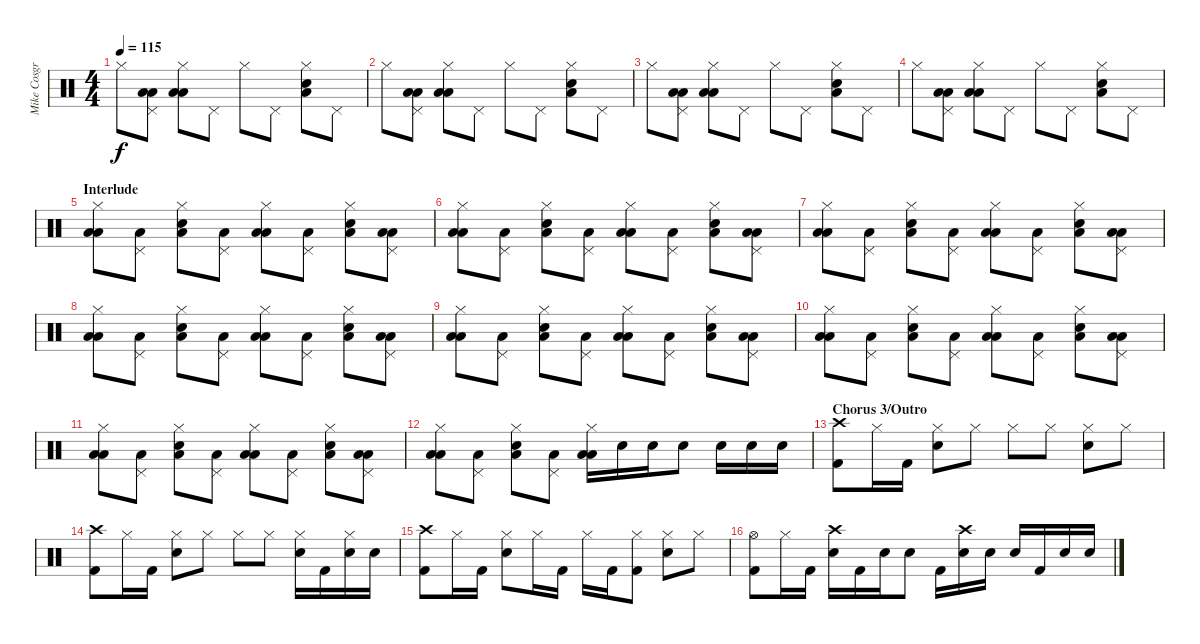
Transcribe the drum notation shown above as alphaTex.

\track ("Mike Cosgrove" "Mike Cosgr") {instrument percussion}
\staff {score}
\articulation defaults
\ts (4 4)
\tempo 115
\clef neutral
\ks c "Hi-Hat (closed)".8{dy f}
("Pedal Hi-Hat (hit)" "Low Tom (hit)" "Low Floor Tom (hit)").8 ("Hi-Hat (closed)" "Low Tom (hit)" "Low Floor Tom (hit)").8 "Pedal Hi-Hat (hit)".8 "Hi-Hat (closed)".8 "Pedal Hi-Hat (hit)".8 ("Hi-Hat (closed)" "Electric Snare (hit)" "Low Floor Tom (hit)").8 "Pedal Hi-Hat (hit)".8 |
"Hi-Hat (closed)".8 ("Pedal Hi-Hat (hit)" "Low Tom (hit)" "Low Floor Tom (hit)").8 ("Hi-Hat (closed)" "Low Tom (hit)" "Low Floor Tom (hit)").8 "Pedal Hi-Hat (hit)".8 "Hi-Hat (closed)".8 "Pedal Hi-Hat (hit)".8 ("Hi-Hat (closed)" "Electric Snare (hit)" "Low Floor Tom (hit)").8 "Pedal Hi-Hat (hit)".8 |
"Hi-Hat (closed)".8 ("Pedal Hi-Hat (hit)" "Low Tom (hit)" "Low Floor Tom (hit)").8 ("Hi-Hat (closed)" "Low Tom (hit)" "Low Floor Tom (hit)").8 "Pedal Hi-Hat (hit)".8 "Hi-Hat (closed)".8 "Pedal Hi-Hat (hit)".8 ("Hi-Hat (closed)" "Electric Snare (hit)" "Low Floor Tom (hit)").8 "Pedal Hi-Hat (hit)".8 |
"Hi-Hat (closed)".8 ("Pedal Hi-Hat (hit)" "Low Tom (hit)" "Low Floor Tom (hit)").8 ("Hi-Hat (closed)" "Low Tom (hit)" "Low Floor Tom (hit)").8 "Pedal Hi-Hat (hit)".8 "Hi-Hat (closed)".8 "Pedal Hi-Hat (hit)".8 ("Hi-Hat (closed)" "Electric Snare (hit)" "Low Floor Tom (hit)").8 "Pedal Hi-Hat (hit)".8 |
\section ("" "Interlude")
("Hi-Hat (closed)" "Low Tom (hit)" "Low Floor Tom (hit)").8 ("Pedal Hi-Hat (hit)" "Low Floor Tom (hit)").8 ("Hi-Hat (closed)" "Electric Snare (hit)" "Low Floor Tom (hit)").8 ("Pedal Hi-Hat (hit)" "Low Floor Tom (hit)").8 ("Hi-Hat (closed)" "Low Tom (hit)" "Low Floor Tom (hit)").8 ("Pedal Hi-Hat (hit)" "Low Floor Tom (hit)").8 ("Hi-Hat (closed)" "Electric Snare (hit)" "Low Floor Tom (hit)").8 ("Pedal Hi-Hat (hit)" "Low Tom (hit)" "Low Floor Tom (hit)").8 |
("Hi-Hat (closed)" "Low Tom (hit)" "Low Floor Tom (hit)").8 ("Pedal Hi-Hat (hit)" "Low Floor Tom (hit)").8 ("Hi-Hat (closed)" "Electric Snare (hit)" "Low Floor Tom (hit)").8 ("Pedal Hi-Hat (hit)" "Low Floor Tom (hit)").8 ("Hi-Hat (closed)" "Low Tom (hit)" "Low Floor Tom (hit)").8 ("Pedal Hi-Hat (hit)" "Low Floor Tom (hit)").8 ("Hi-Hat (closed)" "Electric Snare (hit)" "Low Floor Tom (hit)").8 ("Pedal Hi-Hat (hit)" "Low Tom (hit)" "Low Floor Tom (hit)").8 |
("Hi-Hat (closed)" "Low Tom (hit)" "Low Floor Tom (hit)").8 ("Pedal Hi-Hat (hit)" "Low Floor Tom (hit)").8 ("Hi-Hat (closed)" "Electric Snare (hit)" "Low Floor Tom (hit)").8 ("Pedal Hi-Hat (hit)" "Low Floor Tom (hit)").8 ("Hi-Hat (closed)" "Low Tom (hit)" "Low Floor Tom (hit)").8 ("Pedal Hi-Hat (hit)" "Low Floor Tom (hit)").8 ("Hi-Hat (closed)" "Electric Snare (hit)" "Low Floor Tom (hit)").8 ("Pedal Hi-Hat (hit)" "Low Tom (hit)" "Low Floor Tom (hit)").8 |
("Hi-Hat (closed)" "Low Tom (hit)" "Low Floor Tom (hit)").8 ("Pedal Hi-Hat (hit)" "Low Floor Tom (hit)").8 ("Hi-Hat (closed)" "Electric Snare (hit)" "Low Floor Tom (hit)").8 ("Pedal Hi-Hat (hit)" "Low Floor Tom (hit)").8 ("Hi-Hat (closed)" "Low Tom (hit)" "Low Floor Tom (hit)").8 ("Pedal Hi-Hat (hit)" "Low Floor Tom (hit)").8 ("Hi-Hat (closed)" "Electric Snare (hit)" "Low Floor Tom (hit)").8 ("Pedal Hi-Hat (hit)" "Low Tom (hit)" "Low Floor Tom (hit)").8 |
("Hi-Hat (closed)" "Low Tom (hit)" "Low Floor Tom (hit)").8 ("Pedal Hi-Hat (hit)" "Low Floor Tom (hit)").8 ("Hi-Hat (closed)" "Electric Snare (hit)" "Low Floor Tom (hit)").8 ("Pedal Hi-Hat (hit)" "Low Floor Tom (hit)").8 ("Hi-Hat (closed)" "Low Tom (hit)" "Low Floor Tom (hit)").8 ("Pedal Hi-Hat (hit)" "Low Floor Tom (hit)").8 ("Hi-Hat (closed)" "Electric Snare (hit)" "Low Floor Tom (hit)").8 ("Pedal Hi-Hat (hit)" "Low Tom (hit)" "Low Floor Tom (hit)").8 |
("Hi-Hat (closed)" "Low Tom (hit)" "Low Floor Tom (hit)").8 ("Pedal Hi-Hat (hit)" "Low Floor Tom (hit)").8 ("Hi-Hat (closed)" "Electric Snare (hit)" "Low Floor Tom (hit)").8 ("Pedal Hi-Hat (hit)" "Low Floor Tom (hit)").8 ("Hi-Hat (closed)" "Low Tom (hit)" "Low Floor Tom (hit)").8 ("Pedal Hi-Hat (hit)" "Low Floor Tom (hit)").8 ("Hi-Hat (closed)" "Electric Snare (hit)" "Low Floor Tom (hit)").8 ("Pedal Hi-Hat (hit)" "Low Tom (hit)" "Low Floor Tom (hit)").8 |
("Hi-Hat (closed)" "Low Tom (hit)" "Low Floor Tom (hit)").8 ("Pedal Hi-Hat (hit)" "Low Floor Tom (hit)").8 ("Hi-Hat (closed)" "Electric Snare (hit)" "Low Floor Tom (hit)").8 ("Pedal Hi-Hat (hit)" "Low Floor Tom (hit)").8 ("Hi-Hat (closed)" "Low Tom (hit)" "Low Floor Tom (hit)").8 ("Pedal Hi-Hat (hit)" "Low Floor Tom (hit)").8 ("Hi-Hat (closed)" "Electric Snare (hit)" "Low Floor Tom (hit)").8 ("Pedal Hi-Hat (hit)" "Low Tom (hit)" "Low Floor Tom (hit)").8 |
("Hi-Hat (closed)" "Low Tom (hit)" "Low Floor Tom (hit)").8 ("Pedal Hi-Hat (hit)" "Low Floor Tom (hit)").8 ("Hi-Hat (closed)" "Electric Snare (hit)" "Low Floor Tom (hit)").8 ("Pedal Hi-Hat (hit)" "Low Floor Tom (hit)").8 ("Hi-Hat (closed)" "Low Tom (hit)" "Low Floor Tom (hit)").16 "Electric Snare (hit)".16 "Electric Snare (hit)".16 "Electric Snare (hit)".8 "Electric Snare (hit)".16 "Electric Snare (hit)".16 "Electric Snare (hit)".16 |
\section ("" "Chorus 3/Outro")
("Crash high (hit)" "Kick (hit) 2").8 "Hi-Hat (closed)".16 "Kick (hit) 2".16 ("Hi-Hat (closed)" "Electric Snare (hit)").8 "Hi-Hat (closed)".8 "Hi-Hat (closed)".8 "Hi-Hat (closed)".8 ("Hi-Hat (closed)" "Electric Snare (hit)").8 "Hi-Hat (closed)".8 |
("Crash high (hit)" "Kick (hit) 2").8 "Hi-Hat (closed)".16 "Kick (hit) 2".16 ("Hi-Hat (closed)" "Electric Snare (hit)").8 "Hi-Hat (closed)".8 "Hi-Hat (closed)".8 "Hi-Hat (closed)".8 ("Hi-Hat (closed)" "Electric Snare (hit)").16 "Kick (hit) 2".16 ("Hi-Hat (closed)" "Electric Snare (hit)").16 "Electric Snare (hit)".16 |
("Crash high (hit)" "Kick (hit) 2").8 "Hi-Hat (closed)".16 "Kick (hit) 2".16 ("Hi-Hat (closed)" "Electric Snare (hit)").8 "Hi-Hat (closed)".16 "Kick (hit) 2".16 "Hi-Hat (closed)".16 "Kick (hit) 2".16 ("Hi-Hat (closed)" "Kick (hit) 2").8 ("Hi-Hat (closed)" "Electric Snare (hit)").8 "Hi-Hat (closed)".8 |
("Hi-Hat (open)" "Kick (hit) 2").8 "Hi-Hat (closed)".16 "Kick (hit) 2".16 ("Crash high (hit)" "Electric Snare (hit)").16 "Kick (hit) 2".16 "Electric Snare (hit)".16 "Electric Snare (hit)".8 "Kick (hit) 2".16 ("Crash high (hit)" "Electric Snare (hit)").16 "Electric Snare (hit)".16 "Electric Snare (hit)".16 "Kick (hit) 2".16 "Electric Snare (hit)".16 "Electric Snare (hit)".16
